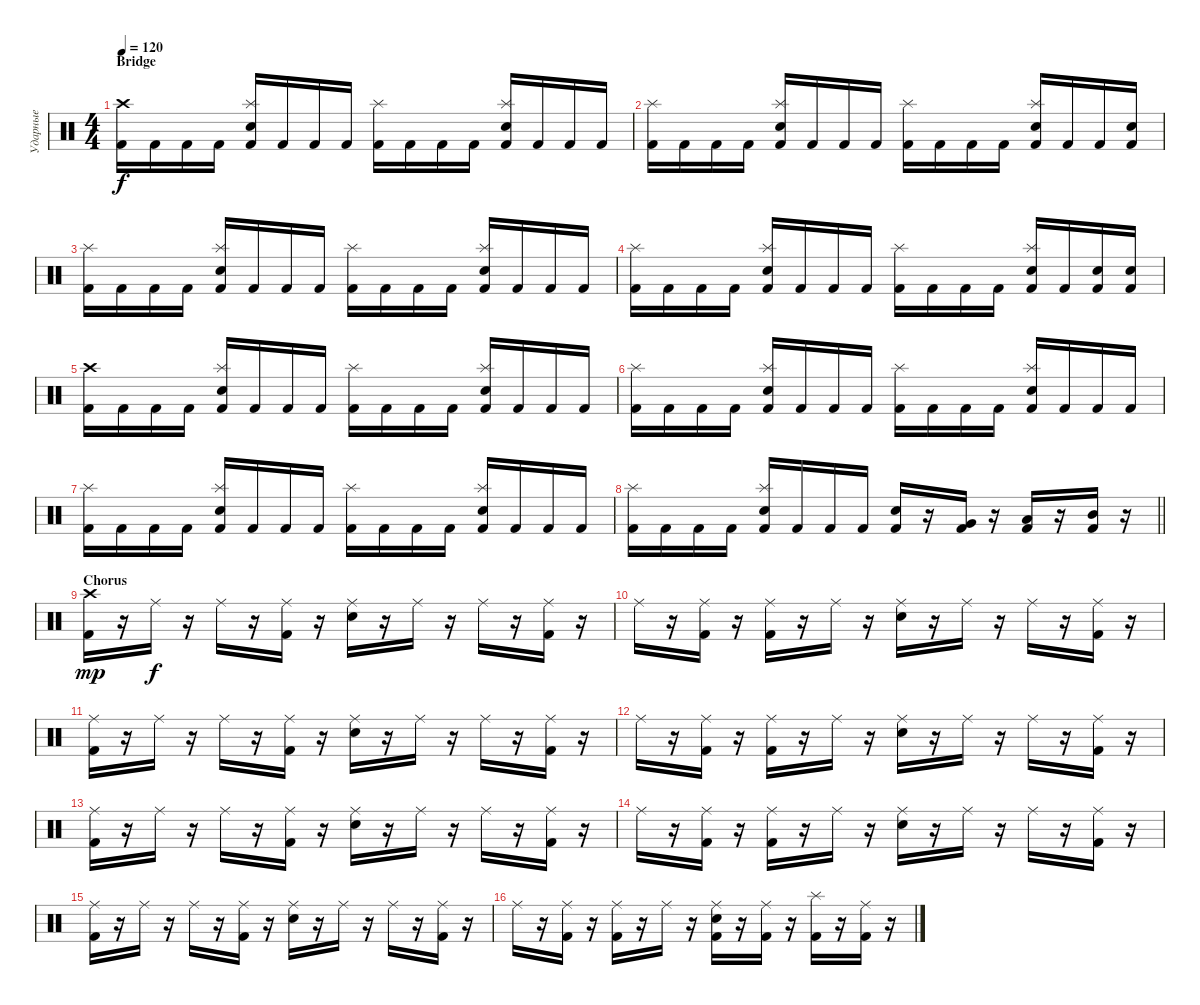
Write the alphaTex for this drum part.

\track ("Ударные" "Ударные") {instrument percussion}
\staff {score}
\articulation defaults
\ts (4 4)
\section ("" "Bridge")
\tempo 120
\clef neutral
\ks c
("Kick (hit) 2" "Crash high (hit)").16{dy f} "Kick (hit) 2".16 "Kick (hit) 2".16 "Kick (hit) 2".16 ("Kick (hit) 2" "Splash (hit)" "Snare (hit) 2").16 "Kick (hit) 2".16 "Kick (hit) 2".16 "Kick (hit) 2".16 ("Kick (hit) 2" "Splash (hit)").16 "Kick (hit) 2".16 "Kick (hit) 2".16 "Kick (hit) 2".16 ("Kick (hit) 2" "Splash (hit)" "Snare (hit) 2").16 "Kick (hit) 2".16 "Kick (hit) 2".16 "Kick (hit) 2".16 |
("Kick (hit) 2" "Splash (hit)").16 "Kick (hit) 2".16 "Kick (hit) 2".16 "Kick (hit) 2".16 ("Kick (hit) 2" "Splash (hit)" "Snare (hit) 2").16 "Kick (hit) 2".16 "Kick (hit) 2".16 "Kick (hit) 2".16 ("Kick (hit) 2" "Splash (hit)").16 "Kick (hit) 2".16 "Kick (hit) 2".16 "Kick (hit) 2".16 ("Kick (hit) 2" "Splash (hit)" "Snare (hit) 2").16 "Kick (hit) 2".16 "Kick (hit) 2".16 ("Kick (hit) 2" "Snare (hit) 2").16 |
("Kick (hit) 2" "Splash (hit)").16 "Kick (hit) 2".16 "Kick (hit) 2".16 "Kick (hit) 2".16 ("Kick (hit) 2" "Splash (hit)" "Snare (hit) 2").16 "Kick (hit) 2".16 "Kick (hit) 2".16 "Kick (hit) 2".16 ("Kick (hit) 2" "Splash (hit)").16 "Kick (hit) 2".16 "Kick (hit) 2".16 "Kick (hit) 2".16 ("Kick (hit) 2" "Splash (hit)" "Snare (hit) 2").16 "Kick (hit) 2".16 "Kick (hit) 2".16 "Kick (hit) 2".16 |
("Kick (hit) 2" "Splash (hit)").16 "Kick (hit) 2".16 "Kick (hit) 2".16 "Kick (hit) 2".16 ("Kick (hit) 2" "Splash (hit)" "Snare (hit) 2").16 "Kick (hit) 2".16 "Kick (hit) 2".16 "Kick (hit) 2".16 ("Kick (hit) 2" "Splash (hit)").16 "Kick (hit) 2".16 "Kick (hit) 2".16 "Kick (hit) 2".16 ("Kick (hit) 2" "Splash (hit)" "Snare (hit) 2").16 "Kick (hit) 2".16 ("Kick (hit) 2" "Snare (hit) 2").16 ("Kick (hit) 2" "Snare (hit) 2").16 |
("Kick (hit) 2" "Crash high (hit)").16 "Kick (hit) 2".16 "Kick (hit) 2".16 "Kick (hit) 2".16 ("Kick (hit) 2" "Splash (hit)" "Snare (hit) 2").16 "Kick (hit) 2".16 "Kick (hit) 2".16 "Kick (hit) 2".16 ("Kick (hit) 2" "Splash (hit)").16 "Kick (hit) 2".16 "Kick (hit) 2".16 "Kick (hit) 2".16 ("Kick (hit) 2" "Splash (hit)" "Snare (hit) 2").16 "Kick (hit) 2".16 "Kick (hit) 2".16 "Kick (hit) 2".16 |
("Kick (hit) 2" "Splash (hit)").16 "Kick (hit) 2".16 "Kick (hit) 2".16 "Kick (hit) 2".16 ("Kick (hit) 2" "Splash (hit)" "Snare (hit) 2").16 "Kick (hit) 2".16 "Kick (hit) 2".16 "Kick (hit) 2".16 ("Kick (hit) 2" "Splash (hit)").16 "Kick (hit) 2".16 "Kick (hit) 2".16 "Kick (hit) 2".16 ("Kick (hit) 2" "Splash (hit)" "Snare (hit) 2").16 "Kick (hit) 2".16 "Kick (hit) 2".16 "Kick (hit) 2".16 |
("Kick (hit) 2" "Splash (hit)").16 "Kick (hit) 2".16 "Kick (hit) 2".16 "Kick (hit) 2".16 ("Kick (hit) 2" "Splash (hit)" "Snare (hit) 2").16 "Kick (hit) 2".16 "Kick (hit) 2".16 "Kick (hit) 2".16 ("Kick (hit) 2" "Splash (hit)").16 "Kick (hit) 2".16 "Kick (hit) 2".16 "Kick (hit) 2".16 ("Kick (hit) 2" "Splash (hit)" "Snare (hit) 2").16 "Kick (hit) 2".16 "Kick (hit) 2".16 "Kick (hit) 2".16 |
\barLineRight lightlight
("Kick (hit) 2" "Splash (hit)").16 "Kick (hit) 2".16 "Kick (hit) 2".16 "Kick (hit) 2".16 ("Kick (hit) 2" "Splash (hit)" "Snare (hit) 2").16 "Kick (hit) 2".16 "Kick (hit) 2".16 "Kick (hit) 2".16 ("Kick (hit) 2" "Snare (hit) 2").16 r.16 ("Kick (hit) 2" "Very Low Tom (hit)").16 r.16 ("Kick (hit) 2" "Low Tom (hit)").16 r.16 ("Kick (hit) 2" "Mid Tom (hit)").16 r.16 |
\section ("" "Chorus")
("Kick (hit) 2" "Crash high (hit)").16{dy mp} r.16 "Ride (middle)".16{dy f} r.16 "Ride (middle)".16 r.16 ("Kick (hit) 2" "Ride (middle)").16 r.16 ("Ride (middle)" "Snare (hit) 2").16 r.16 "Ride (middle)".16 r.16 "Ride (middle)".16 r.16 ("Kick (hit) 2" "Ride (middle)").16 r.16 |
"Ride (middle)".16 r.16 ("Kick (hit) 2" "Ride (middle)").16 r.16 ("Kick (hit) 2" "Ride (middle)").16 r.16 "Ride (middle)".16 r.16 ("Ride (middle)" "Snare (hit) 2").16 r.16 "Ride (middle)".16 r.16 "Ride (middle)".16 r.16 ("Kick (hit) 2" "Ride (middle)").16 r.16 |
("Kick (hit) 2" "Ride (middle)").16 r.16 "Ride (middle)".16 r.16 "Ride (middle)".16 r.16 ("Kick (hit) 2" "Ride (middle)").16 r.16 ("Ride (middle)" "Snare (hit) 2").16 r.16 "Ride (middle)".16 r.16 "Ride (middle)".16 r.16 ("Kick (hit) 2" "Ride (middle)").16 r.16 |
"Ride (middle)".16 r.16 ("Kick (hit) 2" "Ride (middle)").16 r.16 ("Kick (hit) 2" "Ride (middle)").16 r.16 "Ride (middle)".16 r.16 ("Ride (middle)" "Snare (hit) 2").16 r.16 "Ride (middle)".16 r.16 "Ride (middle)".16 r.16 ("Kick (hit) 2" "Ride (middle)").16 r.16 |
("Kick (hit) 2" "Ride (middle)").16 r.16 "Ride (middle)".16 r.16 "Ride (middle)".16 r.16 ("Kick (hit) 2" "Ride (middle)").16 r.16 ("Ride (middle)" "Snare (hit) 2").16 r.16 "Ride (middle)".16 r.16 "Ride (middle)".16 r.16 ("Kick (hit) 2" "Ride (middle)").16 r.16 |
"Ride (middle)".16 r.16 ("Kick (hit) 2" "Ride (middle)").16 r.16 ("Kick (hit) 2" "Ride (middle)").16 r.16 "Ride (middle)".16 r.16 ("Ride (middle)" "Snare (hit) 2").16 r.16 "Ride (middle)".16 r.16 "Ride (middle)".16 r.16 ("Kick (hit) 2" "Ride (middle)").16 r.16 |
("Kick (hit) 2" "Ride (middle)").16 r.16 "Ride (middle)".16 r.16 "Ride (middle)".16 r.16 ("Kick (hit) 2" "Ride (middle)").16 r.16 ("Ride (middle)" "Snare (hit) 2").16 r.16 "Ride (middle)".16 r.16 "Ride (middle)".16 r.16 ("Kick (hit) 2" "Ride (middle)").16 r.16 |
"Ride (middle)".16 r.16 ("Kick (hit) 2" "Ride (middle)").16 r.16 ("Kick (hit) 2" "Ride (middle)").16 r.16 "Ride (middle)".16 r.16 ("Kick (hit) 2" "Ride (middle)" "Snare (hit) 2").16 r.16 ("Kick (hit) 2" "Ride (middle)").16 r.16 ("Kick (hit) 2" "Splash (hit)").16 r.16 ("Kick (hit) 2" "Ride (middle)").16 r.16
